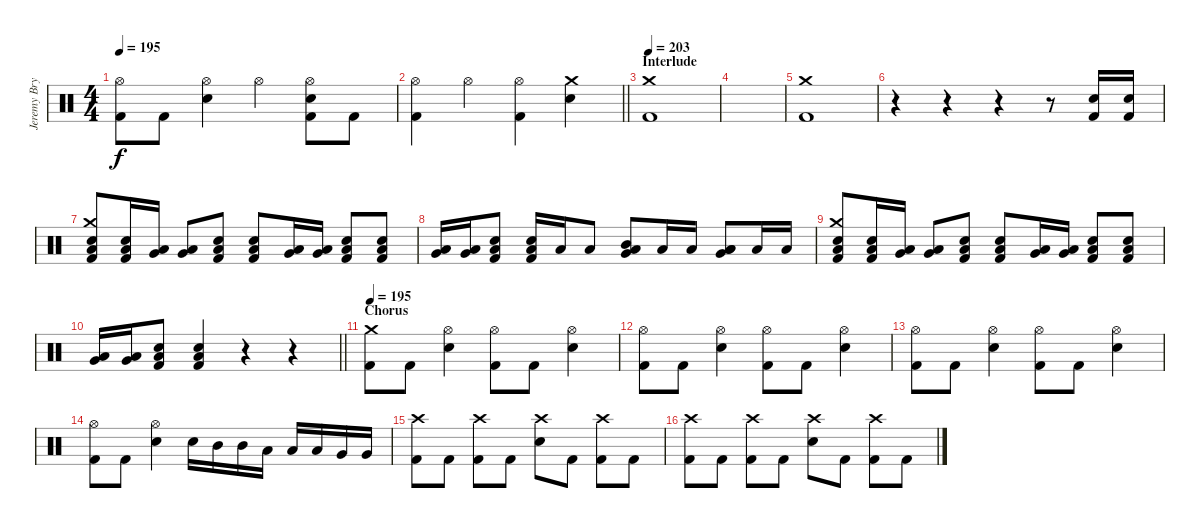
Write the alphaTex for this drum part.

\track ("Jeremy Bryan - Drums" "Jeremy Bry") {instrument percussion}
\staff {score}
\articulation defaults
\ts (4 4)
\tempo 195
\clef neutral
\ks c
("Hi-Hat (open)" "Kick (hit) 2").8{dy f} "Kick (hit) 2".8 ("Hi-Hat (open)" "Electric Snare (hit)").4 "Hi-Hat (open)".4 ("Hi-Hat (open)" "Electric Snare (hit)" "Kick (hit) 2").8 "Kick (hit) 2".8 |
\barLineRight lightlight
("Hi-Hat (open)" "Kick (hit) 2").4 "Hi-Hat (open)".4 ("Hi-Hat (open)" "Kick (hit) 2").4 ("Crash medium (hit)" "Electric Snare (hit)").4 |
\section ("" "Interlude")
\tempo 203
("Crash medium (hit)" "Kick (hit) 2").1 |
|
("Crash medium (hit)" "Kick (hit) 2").1 |
r.4 r.4 r.4 r.8 ("Electric Snare (hit)" "Kick (hit) 2").16 ("Electric Snare (hit)" "Kick (hit) 2").16 |
("Crash medium (hit)" "Low Floor Tom (hit)" "Electric Snare (hit)" "Kick (hit) 2").8 ("Low Floor Tom (hit)" "Electric Snare (hit)" "Kick (hit) 2").16 ("Very Low Tom (hit)" "Low Floor Tom (hit)").16 ("Very Low Tom (hit)" "Low Floor Tom (hit)").8 ("Low Floor Tom (hit)" "Electric Snare (hit)" "Kick (hit) 2").8 ("Low Floor Tom (hit)" "Electric Snare (hit)" "Kick (hit) 2").8 ("Very Low Tom (hit)" "Low Floor Tom (hit)").16 ("Very Low Tom (hit)" "Low Floor Tom (hit)").16 ("Low Floor Tom (hit)" "Electric Snare (hit)" "Kick (hit) 2").8 ("Low Floor Tom (hit)" "Electric Snare (hit)" "Kick (hit) 2").8 |
("Very Low Tom (hit)" "Low Floor Tom (hit)").16 ("Very Low Tom (hit)" "Low Floor Tom (hit)").16 ("Low Floor Tom (hit)" "Electric Snare (hit)" "Kick (hit) 2").8 ("Low Floor Tom (hit)" "Electric Snare (hit)" "Kick (hit) 2").16 "Low Floor Tom (hit)".16 "Low Floor Tom (hit)".8 ("Mid Tom (hit)" "Very Low Tom (hit)" "Low Floor Tom (hit)").8 "Low Floor Tom (hit)".16 "Low Floor Tom (hit)".16 ("Low Tom (hit)" "Very Low Tom (hit)" "Low Floor Tom (hit)").8 "Low Floor Tom (hit)".16 "Low Floor Tom (hit)".16 |
("Crash medium (hit)" "Low Floor Tom (hit)" "Electric Snare (hit)" "Kick (hit) 2").8 ("Low Floor Tom (hit)" "Electric Snare (hit)" "Kick (hit) 2").16 ("Very Low Tom (hit)" "Low Floor Tom (hit)").16 ("Very Low Tom (hit)" "Low Floor Tom (hit)").8 ("Low Floor Tom (hit)" "Electric Snare (hit)" "Kick (hit) 2").8 ("Low Floor Tom (hit)" "Electric Snare (hit)" "Kick (hit) 2").8 ("Very Low Tom (hit)" "Low Floor Tom (hit)").16 ("Very Low Tom (hit)" "Low Floor Tom (hit)").16 ("Low Floor Tom (hit)" "Electric Snare (hit)" "Kick (hit) 2").8 ("Low Floor Tom (hit)" "Electric Snare (hit)" "Kick (hit) 2").8 |
\barLineRight lightlight
("Very Low Tom (hit)" "Low Floor Tom (hit)").16 ("Very Low Tom (hit)" "Low Floor Tom (hit)").16 ("Low Floor Tom (hit)" "Electric Snare (hit)" "Kick (hit) 2").8 ("Low Floor Tom (hit)" "Electric Snare (hit)" "Kick (hit) 2").4 r.4 r.4 |
\section ("" "Chorus")
\tempo 195
("Crash medium (hit)" "Kick (hit) 2").8 "Kick (hit) 2".8 ("Hi-Hat (open)" "Electric Snare (hit)").4 ("Hi-Hat (open)" "Kick (hit) 2").8 "Kick (hit) 2".8 ("Hi-Hat (open)" "Electric Snare (hit)").4 |
("Hi-Hat (open)" "Kick (hit) 2").8 "Kick (hit) 2".8 ("Hi-Hat (open)" "Electric Snare (hit)").4 ("Hi-Hat (open)" "Kick (hit) 2").8 "Kick (hit) 2".8 ("Hi-Hat (open)" "Electric Snare (hit)").4 |
("Hi-Hat (open)" "Kick (hit) 2").8 "Kick (hit) 2".8 ("Hi-Hat (open)" "Electric Snare (hit)").4 ("Hi-Hat (open)" "Kick (hit) 2").8 "Kick (hit) 2".8 ("Hi-Hat (open)" "Electric Snare (hit)").4 |
("Hi-Hat (open)" "Kick (hit) 2").8 "Kick (hit) 2".8 ("Hi-Hat (open)" "Electric Snare (hit)").4 "Electric Snare (hit)".16 "Mid Tom (hit)".16 "Mid Tom (hit)".16 "Low Tom (hit)".16 "Low Tom (hit)".16 "Low Tom (hit)".16 "Very Low Tom (hit)".16 "Very Low Tom (hit)".16 |
("Crash high (hit)" "Kick (hit) 2").8 "Kick (hit) 2".8 ("Crash high (hit)" "Kick (hit) 2").8 "Kick (hit) 2".8 ("Crash high (hit)" "Electric Snare (hit)").8 "Kick (hit) 2".8 ("Crash high (hit)" "Kick (hit) 2").8 "Kick (hit) 2".8 |
("Crash high (hit)" "Kick (hit) 2").8 "Kick (hit) 2".8 ("Crash high (hit)" "Kick (hit) 2").8 "Kick (hit) 2".8 ("Crash high (hit)" "Electric Snare (hit)").8 "Kick (hit) 2".8 ("Crash high (hit)" "Kick (hit) 2").8 "Kick (hit) 2".8
